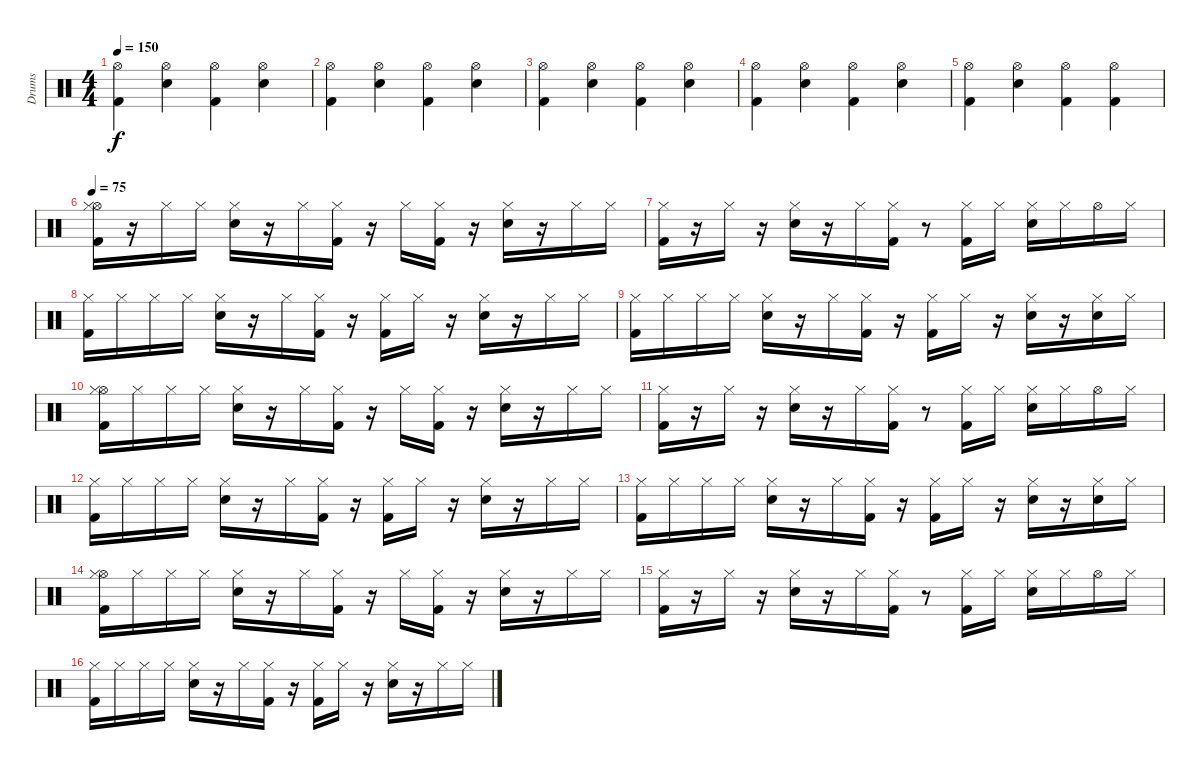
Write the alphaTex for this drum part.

\track ("Drums" "Drums") {instrument percussion}
\staff {score}
\articulation defaults
\ts (4 4)
\tempo 150
\clef neutral
\ks c
("Hi-Hat (open)" "Kick (hit) 2").4{dy f} ("Hi-Hat (open)" "Snare (hit) 2").4 ("Kick (hit) 2" "Hi-Hat (open)").4 ("Hi-Hat (open)" "Snare (hit) 2").4 |
("Kick (hit) 2" "Hi-Hat (open)").4 ("Hi-Hat (open)" "Snare (hit) 2").4 ("Hi-Hat (open)" "Kick (hit) 2").4 ("Hi-Hat (open)" "Snare (hit) 2").4 |
("Kick (hit) 2" "Hi-Hat (open)").4 ("Hi-Hat (open)" "Snare (hit) 2").4 ("Hi-Hat (open)" "Kick (hit) 2").4 ("Snare (hit) 2" "Hi-Hat (open)").4 |
("Hi-Hat (open)" "Kick (hit) 2").4 ("Hi-Hat (open)" "Snare (hit) 2").4 ("Hi-Hat (open)" "Kick (hit) 2").4 ("Hi-Hat (open)" "Snare (hit) 2").4 |
("Hi-Hat (open)" "Kick (hit) 2").4 ("Hi-Hat (open)" "Snare (hit) 2").4 ("Kick (hit) 2" "Hi-Hat (open)").4 ("Kick (hit) 2" "Hi-Hat (open)").4 |
\tempo 75
("Hi-Hat (open)" "Hi-Hat (closed)" "Kick (hit) 2").16 r.16 "Hi-Hat (closed)".16 "Hi-Hat (closed)".16 ("Hi-Hat (closed)" "Snare (hit) 2").16 r.16 "Hi-Hat (closed)".16 ("Kick (hit) 2" "Hi-Hat (closed)").16 r.16 "Hi-Hat (closed)".16 ("Kick (hit) 2" "Hi-Hat (closed)").16 r.16 ("Hi-Hat (closed)" "Snare (hit) 2").16 r.16 "Hi-Hat (closed)".16 "Hi-Hat (closed)".16 |
("Kick (hit) 2" "Hi-Hat (closed)").16 r.16 "Hi-Hat (closed)".16 r.16 ("Snare (hit) 2" "Hi-Hat (closed)").16 r.16 "Hi-Hat (closed)".16 ("Hi-Hat (closed)" "Kick (hit) 2").16 r.8 ("Hi-Hat (closed)" "Kick (hit) 2").16 "Hi-Hat (closed)".16 ("Snare (hit) 2" "Hi-Hat (closed)").16 "Hi-Hat (closed)".16 "Hi-Hat (open)".16 "Hi-Hat (closed)".16 |
("Hi-Hat (closed)" "Kick (hit) 2").16 "Hi-Hat (closed)".16 "Hi-Hat (closed)".16 "Hi-Hat (closed)".16 ("Snare (hit) 2" "Hi-Hat (closed)").16 r.16 "Hi-Hat (closed)".16 ("Hi-Hat (closed)" "Kick (hit) 2").16 r.16 ("Hi-Hat (closed)" "Kick (hit) 2").16 "Hi-Hat (closed)".16 r.16 ("Snare (hit) 2" "Hi-Hat (closed)").16 r.16 "Hi-Hat (closed)".16 "Hi-Hat (closed)".16 |
("Hi-Hat (closed)" "Kick (hit) 2").16 "Hi-Hat (closed)".16 "Hi-Hat (closed)".16 "Hi-Hat (closed)".16 ("Hi-Hat (closed)" "Snare (hit) 2").16 r.16 "Hi-Hat (closed)".16 ("Kick (hit) 2" "Hi-Hat (closed)").16 r.16 ("Hi-Hat (closed)" "Kick (hit) 2").16 "Hi-Hat (closed)".16 r.16 ("Snare (hit) 2" "Hi-Hat (closed)").16 r.16 ("Snare (hit) 2" "Hi-Hat (closed)").16 "Hi-Hat (closed)".16 |
("Kick (hit) 2" "Hi-Hat (open)" "Hi-Hat (closed)").16 "Hi-Hat (closed)".16 "Hi-Hat (closed)".16 "Hi-Hat (closed)".16 ("Hi-Hat (closed)" "Snare (hit) 2").16 r.16 "Hi-Hat (closed)".16 ("Kick (hit) 2" "Hi-Hat (closed)").16 r.16 "Hi-Hat (closed)".16 ("Kick (hit) 2" "Hi-Hat (closed)").16 r.16 ("Hi-Hat (closed)" "Snare (hit) 2").16 r.16 "Hi-Hat (closed)".16 "Hi-Hat (closed)".16 |
("Kick (hit) 2" "Hi-Hat (closed)").16 r.16 "Hi-Hat (closed)".16 r.16 ("Snare (hit) 2" "Hi-Hat (closed)").16 r.16 "Hi-Hat (closed)".16 ("Hi-Hat (closed)" "Kick (hit) 2").16 r.8 ("Hi-Hat (closed)" "Kick (hit) 2").16 "Hi-Hat (closed)".16 ("Snare (hit) 2" "Hi-Hat (closed)").16 "Hi-Hat (closed)".16 "Hi-Hat (open)".16 "Hi-Hat (closed)".16 |
("Hi-Hat (closed)" "Kick (hit) 2").16 "Hi-Hat (closed)".16 "Hi-Hat (closed)".16 "Hi-Hat (closed)".16 ("Snare (hit) 2" "Hi-Hat (closed)").16 r.16 "Hi-Hat (closed)".16 ("Hi-Hat (closed)" "Kick (hit) 2").16 r.16 ("Hi-Hat (closed)" "Kick (hit) 2").16 "Hi-Hat (closed)".16 r.16 ("Snare (hit) 2" "Hi-Hat (closed)").16 r.16 "Hi-Hat (closed)".16 "Hi-Hat (closed)".16 |
("Hi-Hat (closed)" "Kick (hit) 2").16 "Hi-Hat (closed)".16 "Hi-Hat (closed)".16 "Hi-Hat (closed)".16 ("Hi-Hat (closed)" "Snare (hit) 2").16 r.16 "Hi-Hat (closed)".16 ("Kick (hit) 2" "Hi-Hat (closed)").16 r.16 ("Hi-Hat (closed)" "Kick (hit) 2").16 "Hi-Hat (closed)".16 r.16 ("Snare (hit) 2" "Hi-Hat (closed)").16 r.16 ("Snare (hit) 2" "Hi-Hat (closed)").16 "Hi-Hat (closed)".16 |
("Kick (hit) 2" "Hi-Hat (open)" "Hi-Hat (closed)").16 "Hi-Hat (closed)".16 "Hi-Hat (closed)".16 "Hi-Hat (closed)".16 ("Hi-Hat (closed)" "Snare (hit) 2").16 r.16 "Hi-Hat (closed)".16 ("Kick (hit) 2" "Hi-Hat (closed)").16 r.16 "Hi-Hat (closed)".16 ("Kick (hit) 2" "Hi-Hat (closed)").16 r.16 ("Hi-Hat (closed)" "Snare (hit) 2").16 r.16 "Hi-Hat (closed)".16 "Hi-Hat (closed)".16 |
("Kick (hit) 2" "Hi-Hat (closed)").16 r.16 "Hi-Hat (closed)".16 r.16 ("Snare (hit) 2" "Hi-Hat (closed)").16 r.16 "Hi-Hat (closed)".16 ("Hi-Hat (closed)" "Kick (hit) 2").16 r.8 ("Hi-Hat (closed)" "Kick (hit) 2").16 "Hi-Hat (closed)".16 ("Snare (hit) 2" "Hi-Hat (closed)").16 "Hi-Hat (closed)".16 "Hi-Hat (open)".16 "Hi-Hat (closed)".16 |
("Hi-Hat (closed)" "Kick (hit) 2").16 "Hi-Hat (closed)".16 "Hi-Hat (closed)".16 "Hi-Hat (closed)".16 ("Snare (hit) 2" "Hi-Hat (closed)").16 r.16 "Hi-Hat (closed)".16 ("Hi-Hat (closed)" "Kick (hit) 2").16 r.16 ("Hi-Hat (closed)" "Kick (hit) 2").16 "Hi-Hat (closed)".16 r.16 ("Snare (hit) 2" "Hi-Hat (closed)").16 r.16 "Hi-Hat (closed)".16 "Hi-Hat (closed)".16
